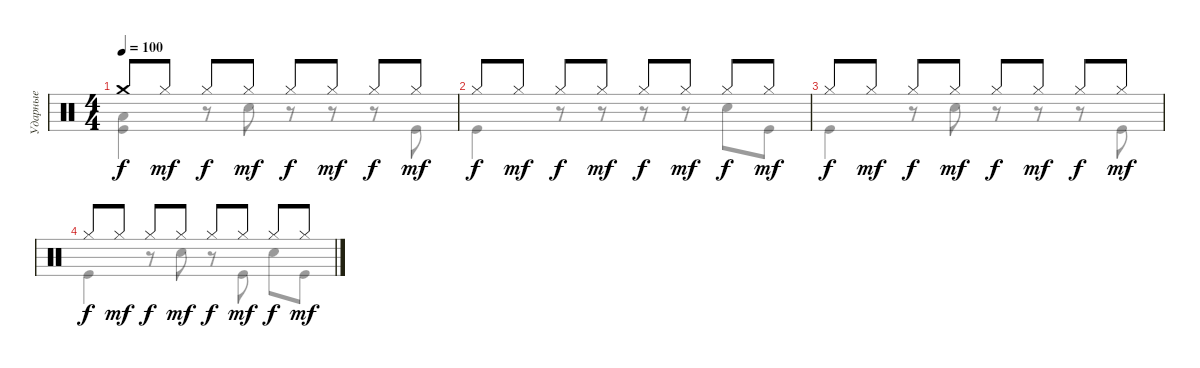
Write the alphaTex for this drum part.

\track ("Ударные" "Ударные") {instrument percussion}
\staff {score}
\articulation defaults
\voice
\ts (4 4)
\tempo 100
\clef neutral
\ks c "Crash medium (hit)".8{dy f} "Hi-Hat (closed)".8{dy mf} "Hi-Hat (closed)".8{dy f} "Hi-Hat (closed)".8{dy mf} "Hi-Hat (closed)".8{dy f} "Hi-Hat (closed)".8{dy mf} "Hi-Hat (closed)".8{dy f} "Hi-Hat (closed)".8{dy mf}
|
"Hi-Hat (closed)".8{dy f} "Hi-Hat (closed)".8{dy mf} "Hi-Hat (closed)".8{dy f} "Hi-Hat (closed)".8{dy mf} "Hi-Hat (closed)".8{dy f} "Hi-Hat (closed)".8{dy mf} "Hi-Hat (closed)".8{dy f} "Hi-Hat (closed)".8{dy mf} |
"Hi-Hat (closed)".8{dy f} "Hi-Hat (closed)".8{dy mf} "Hi-Hat (closed)".8{dy f} "Hi-Hat (closed)".8{dy mf} "Hi-Hat (closed)".8{dy f} "Hi-Hat (closed)".8{dy mf} "Hi-Hat (closed)".8{dy f} "Hi-Hat (closed)".8{dy mf} |
"Hi-Hat (closed)".8{dy f} "Hi-Hat (closed)".8{dy mf} "Hi-Hat (closed)".8{dy f} "Hi-Hat (closed)".8{dy mf} "Hi-Hat (closed)".8{dy f} "Hi-Hat (closed)".8{dy mf} "Hi-Hat (closed)".8{dy f} "Hi-Hat (closed)".8{dy mf} |
|
|
|
|
|
|
|
|
|
|
|
\voice
\clef neutral
\ottava regular
\simile none
\ks c
("Low Floor Tom (hit)" "Kick (hit)").4{dy f} r.8 "Snare (hit) 2".8 r.8 r.8 r.8 "Kick (hit)".8 |
"Kick (hit)".4 r.8 r.8 r.8 r.8 "Snare (hit) 2".8 "Kick (hit)".8 |
"Kick (hit)".4 r.8 "Snare (hit) 2".8 r.8 r.8 r.8 "Kick (hit)".8 |
"Kick (hit)".4 r.8 "Snare (hit) 2".8 r.8 "Kick (hit)".8 "Snare (hit) 2".8 "Kick (hit)".8 |
|
|
|
|
|
|
|
|
|
|
|
